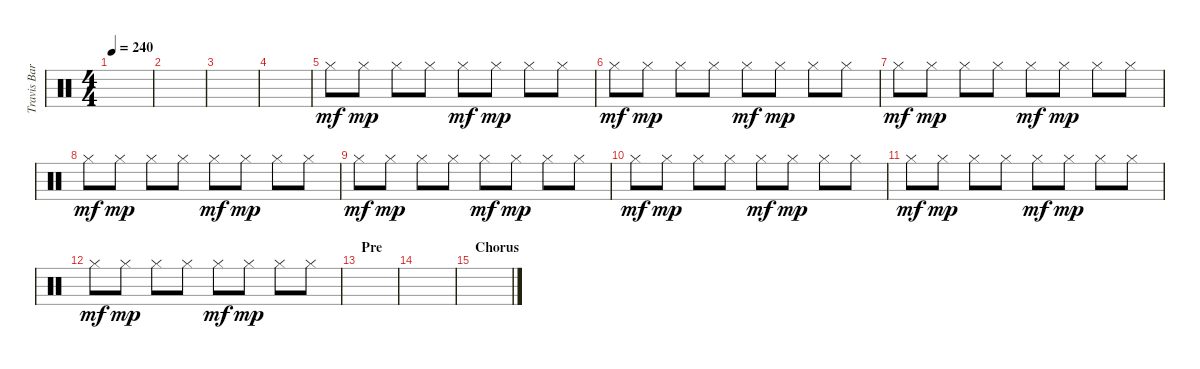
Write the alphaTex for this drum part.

\track ("Travis Barker - Drums 2" "Travis Bar") {instrument percussion}
\staff {score}
\articulation defaults
\ts (4 4)
\tempo 240
\clef neutral
\ks c
|
|
|
|
"Hi-Hat (closed)".8{dy mf} "Hi-Hat (closed)".8{dy mp} "Hi-Hat (closed)".8 "Hi-Hat (closed)".8 "Hi-Hat (closed)".8{dy mf} "Hi-Hat (closed)".8{dy mp} "Hi-Hat (closed)".8 "Hi-Hat (closed)".8 |
"Hi-Hat (closed)".8{dy mf} "Hi-Hat (closed)".8{dy mp} "Hi-Hat (closed)".8 "Hi-Hat (closed)".8 "Hi-Hat (closed)".8{dy mf} "Hi-Hat (closed)".8{dy mp} "Hi-Hat (closed)".8 "Hi-Hat (closed)".8 |
"Hi-Hat (closed)".8{dy mf} "Hi-Hat (closed)".8{dy mp} "Hi-Hat (closed)".8 "Hi-Hat (closed)".8 "Hi-Hat (closed)".8{dy mf} "Hi-Hat (closed)".8{dy mp} "Hi-Hat (closed)".8 "Hi-Hat (closed)".8 |
"Hi-Hat (closed)".8{dy mf} "Hi-Hat (closed)".8{dy mp} "Hi-Hat (closed)".8 "Hi-Hat (closed)".8 "Hi-Hat (closed)".8{dy mf} "Hi-Hat (closed)".8{dy mp} "Hi-Hat (closed)".8 "Hi-Hat (closed)".8 |
"Hi-Hat (closed)".8{dy mf} "Hi-Hat (closed)".8{dy mp} "Hi-Hat (closed)".8 "Hi-Hat (closed)".8 "Hi-Hat (closed)".8{dy mf} "Hi-Hat (closed)".8{dy mp} "Hi-Hat (closed)".8 "Hi-Hat (closed)".8 |
"Hi-Hat (closed)".8{dy mf} "Hi-Hat (closed)".8{dy mp} "Hi-Hat (closed)".8 "Hi-Hat (closed)".8 "Hi-Hat (closed)".8{dy mf} "Hi-Hat (closed)".8{dy mp} "Hi-Hat (closed)".8 "Hi-Hat (closed)".8 |
"Hi-Hat (closed)".8{dy mf} "Hi-Hat (closed)".8{dy mp} "Hi-Hat (closed)".8 "Hi-Hat (closed)".8 "Hi-Hat (closed)".8{dy mf} "Hi-Hat (closed)".8{dy mp} "Hi-Hat (closed)".8 "Hi-Hat (closed)".8 |
"Hi-Hat (closed)".8{dy mf} "Hi-Hat (closed)".8{dy mp} "Hi-Hat (closed)".8 "Hi-Hat (closed)".8 "Hi-Hat (closed)".8{dy mf} "Hi-Hat (closed)".8{dy mp} "Hi-Hat (closed)".8 "Hi-Hat (closed)".8 |
\section ("" "Pre")
|
|
\section ("" "Chorus")
